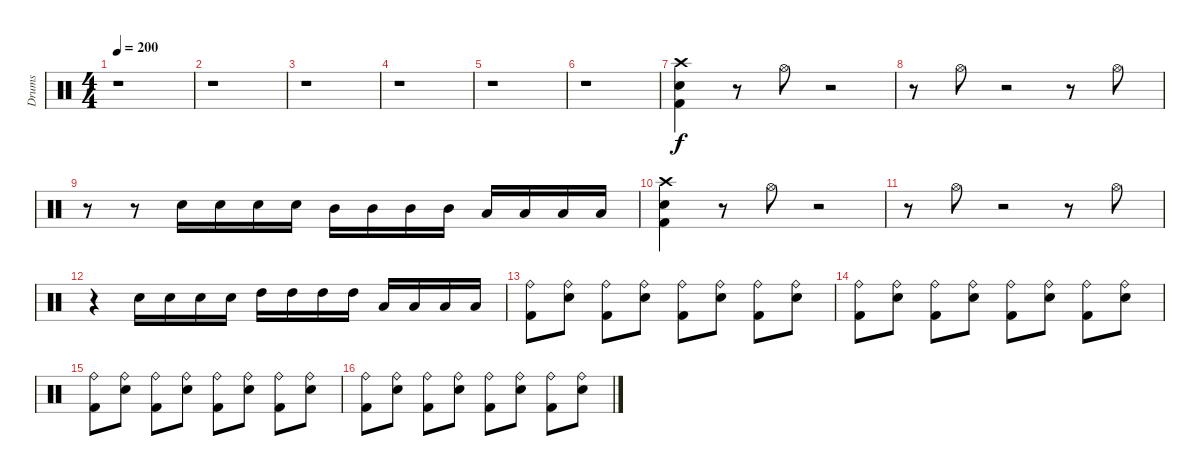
\track ("Drums" "Drums") {instrument percussion}
\staff {score}
\articulation defaults
\ts (4 4)
\tempo 200
\clef neutral
\ks c
r.1{dy f} |
r.1 |
r.1 |
r.1 |
r.1 |
r.1 |
("Crash high (hit)" "Snare (hit) 2" "Kick (hit) 2").4 r.8 "Hi-Hat (open)".8 r.2 |
r.8 "Hi-Hat (open)".8 r.2 r.8 "Hi-Hat (open)".8 |
r.8 r.8 "Snare (hit) 2".16 "Snare (hit) 2".16 "Snare (hit) 2".16 "Snare (hit) 2".16 "Mid Tom (hit)".16 "Mid Tom (hit)".16 "Mid Tom (hit)".16 "Mid Tom (hit)".16 "Low Tom (hit)".16 "Low Tom (hit)".16 "Low Tom (hit)".16 "Low Tom (hit)".16 |
("Crash high (hit)" "Snare (hit) 2" "Kick (hit) 2").4 r.8 "Hi-Hat (open)".8 r.2 |
r.8 "Hi-Hat (open)".8 r.2 r.8 "Hi-Hat (open)".8 |
r.4 "Snare (hit) 2".16 "Snare (hit) 2".16 "Snare (hit) 2".16 "Snare (hit) 2".16 "High Tom (hit)".16 "High Tom (hit)".16 "High Tom (hit)".16 "High Tom (hit)".16 "Low Tom (hit)".16 "Low Tom (hit)".16 "Low Tom (hit)".16 "Low Tom (hit)".16 |
("Ride (bell)" "Kick (hit) 2").8 ("Ride (bell)" "Electric Snare (hit)").8 ("Ride (bell)" "Kick (hit) 2").8 ("Ride (bell)" "Electric Snare (hit)").8 ("Ride (bell)" "Kick (hit) 2").8 ("Ride (bell)" "Electric Snare (hit)").8 ("Ride (bell)" "Kick (hit) 2").8 ("Ride (bell)" "Electric Snare (hit)").8 |
("Ride (bell)" "Kick (hit) 2").8 ("Ride (bell)" "Electric Snare (hit)").8 ("Ride (bell)" "Kick (hit) 2").8 ("Ride (bell)" "Electric Snare (hit)").8 ("Ride (bell)" "Kick (hit) 2").8 ("Ride (bell)" "Electric Snare (hit)").8 ("Ride (bell)" "Kick (hit) 2").8 ("Ride (bell)" "Electric Snare (hit)").8 |
("Ride (bell)" "Kick (hit) 2").8 ("Ride (bell)" "Electric Snare (hit)").8 ("Ride (bell)" "Kick (hit) 2").8 ("Ride (bell)" "Electric Snare (hit)").8 ("Ride (bell)" "Kick (hit) 2").8 ("Ride (bell)" "Electric Snare (hit)").8 ("Ride (bell)" "Kick (hit) 2").8 ("Ride (bell)" "Electric Snare (hit)").8 |
("Ride (bell)" "Kick (hit) 2").8 ("Ride (bell)" "Electric Snare (hit)").8 ("Ride (bell)" "Kick (hit) 2").8 ("Ride (bell)" "Electric Snare (hit)").8 ("Ride (bell)" "Kick (hit) 2").8 ("Ride (bell)" "Electric Snare (hit)").8 ("Ride (bell)" "Kick (hit) 2").8 ("Ride (bell)" "Electric Snare (hit)").8
